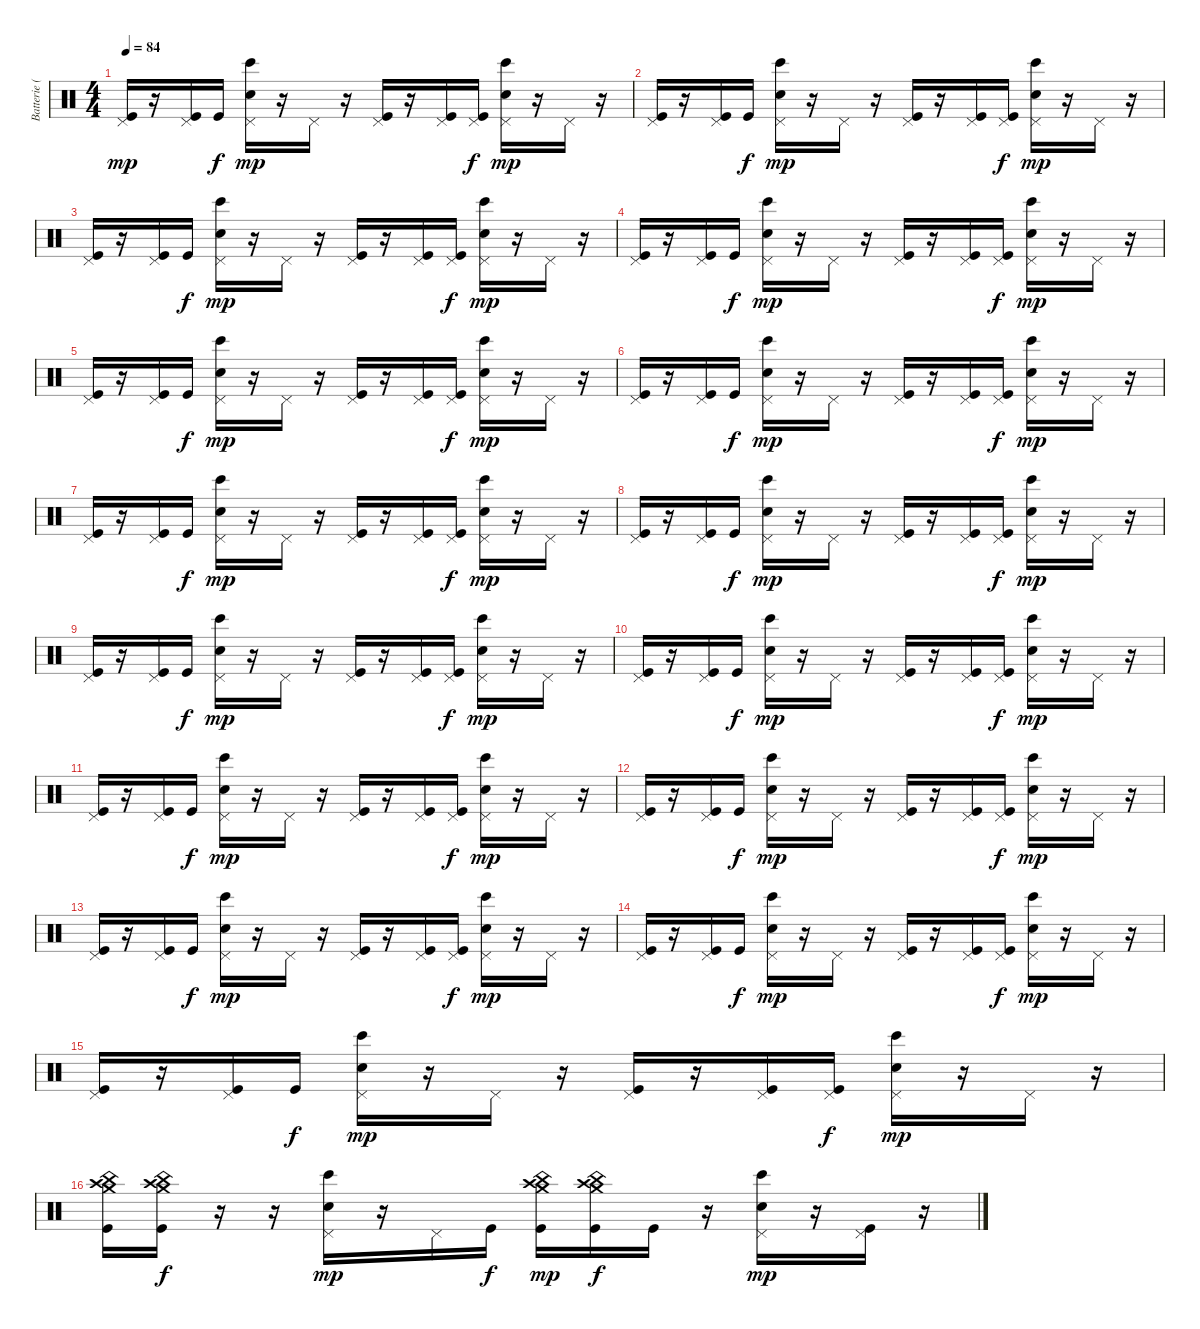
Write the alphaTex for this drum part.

\track ("Batterie (+hand claps)" "Batterie (") {instrument percussion}
\staff {score}
\articulation defaults
\ts (4 4)
\tempo 84
\clef neutral
\ks c
("Pedal Hi-Hat (hit)" "Kick (hit)").16{dy mp} r.16 ("Pedal Hi-Hat (hit)" "Kick (hit)").16 "Kick (hit)".16{dy f} ("Pedal Hi-Hat (hit)" "Hand Clap (hit)" "Bongo High (hit)").16{dy mp} r.16 "Pedal Hi-Hat (hit)".16 r.16 ("Pedal Hi-Hat (hit)" "Kick (hit)").16 r.16 ("Pedal Hi-Hat (hit)" "Kick (hit)").16 ("Pedal Hi-Hat (hit)" "Kick (hit)").16{dy f} ("Pedal Hi-Hat (hit)" "Hand Clap (hit)" "Bongo High (hit)").16{dy mp} r.16 "Pedal Hi-Hat (hit)".16 r.16 |
("Pedal Hi-Hat (hit)" "Kick (hit)").16 r.16 ("Pedal Hi-Hat (hit)" "Kick (hit)").16 "Kick (hit)".16{dy f} ("Pedal Hi-Hat (hit)" "Hand Clap (hit)" "Bongo High (hit)").16{dy mp} r.16 "Pedal Hi-Hat (hit)".16 r.16 ("Pedal Hi-Hat (hit)" "Kick (hit)").16 r.16 ("Pedal Hi-Hat (hit)" "Kick (hit)").16 ("Pedal Hi-Hat (hit)" "Kick (hit)").16{dy f} ("Pedal Hi-Hat (hit)" "Hand Clap (hit)" "Bongo High (hit)").16{dy mp} r.16 "Pedal Hi-Hat (hit)".16 r.16 |
("Pedal Hi-Hat (hit)" "Kick (hit)").16 r.16 ("Pedal Hi-Hat (hit)" "Kick (hit)").16 "Kick (hit)".16{dy f} ("Pedal Hi-Hat (hit)" "Hand Clap (hit)" "Bongo High (hit)").16{dy mp} r.16 "Pedal Hi-Hat (hit)".16 r.16 ("Pedal Hi-Hat (hit)" "Kick (hit)").16 r.16 ("Pedal Hi-Hat (hit)" "Kick (hit)").16 ("Pedal Hi-Hat (hit)" "Kick (hit)").16{dy f} ("Pedal Hi-Hat (hit)" "Hand Clap (hit)" "Bongo High (hit)").16{dy mp} r.16 "Pedal Hi-Hat (hit)".16 r.16 |
("Pedal Hi-Hat (hit)" "Kick (hit)").16 r.16 ("Pedal Hi-Hat (hit)" "Kick (hit)").16 "Kick (hit)".16{dy f} ("Pedal Hi-Hat (hit)" "Hand Clap (hit)" "Bongo High (hit)").16{dy mp} r.16 "Pedal Hi-Hat (hit)".16 r.16 ("Pedal Hi-Hat (hit)" "Kick (hit)").16 r.16 ("Pedal Hi-Hat (hit)" "Kick (hit)").16 ("Pedal Hi-Hat (hit)" "Kick (hit)").16{dy f} ("Pedal Hi-Hat (hit)" "Hand Clap (hit)" "Bongo High (hit)").16{dy mp} r.16 "Pedal Hi-Hat (hit)".16 r.16 |
("Pedal Hi-Hat (hit)" "Kick (hit)").16 r.16 ("Pedal Hi-Hat (hit)" "Kick (hit)").16 "Kick (hit)".16{dy f} ("Pedal Hi-Hat (hit)" "Hand Clap (hit)" "Bongo High (hit)").16{dy mp} r.16 "Pedal Hi-Hat (hit)".16 r.16 ("Pedal Hi-Hat (hit)" "Kick (hit)").16 r.16 ("Pedal Hi-Hat (hit)" "Kick (hit)").16 ("Pedal Hi-Hat (hit)" "Kick (hit)").16{dy f} ("Pedal Hi-Hat (hit)" "Hand Clap (hit)" "Bongo High (hit)").16{dy mp} r.16 "Pedal Hi-Hat (hit)".16 r.16 |
("Pedal Hi-Hat (hit)" "Kick (hit)").16 r.16 ("Pedal Hi-Hat (hit)" "Kick (hit)").16 "Kick (hit)".16{dy f} ("Pedal Hi-Hat (hit)" "Hand Clap (hit)" "Bongo High (hit)").16{dy mp} r.16 "Pedal Hi-Hat (hit)".16 r.16 ("Pedal Hi-Hat (hit)" "Kick (hit)").16 r.16 ("Pedal Hi-Hat (hit)" "Kick (hit)").16 ("Pedal Hi-Hat (hit)" "Kick (hit)").16{dy f} ("Pedal Hi-Hat (hit)" "Hand Clap (hit)" "Bongo High (hit)").16{dy mp} r.16 "Pedal Hi-Hat (hit)".16 r.16 |
("Pedal Hi-Hat (hit)" "Kick (hit)").16 r.16 ("Pedal Hi-Hat (hit)" "Kick (hit)").16 "Kick (hit)".16{dy f} ("Pedal Hi-Hat (hit)" "Hand Clap (hit)" "Bongo High (hit)").16{dy mp} r.16 "Pedal Hi-Hat (hit)".16 r.16 ("Pedal Hi-Hat (hit)" "Kick (hit)").16 r.16 ("Pedal Hi-Hat (hit)" "Kick (hit)").16 ("Pedal Hi-Hat (hit)" "Kick (hit)").16{dy f} ("Pedal Hi-Hat (hit)" "Hand Clap (hit)" "Bongo High (hit)").16{dy mp} r.16 "Pedal Hi-Hat (hit)".16 r.16 |
("Pedal Hi-Hat (hit)" "Kick (hit)").16 r.16 ("Pedal Hi-Hat (hit)" "Kick (hit)").16 "Kick (hit)".16{dy f} ("Pedal Hi-Hat (hit)" "Hand Clap (hit)" "Bongo High (hit)").16{dy mp} r.16 "Pedal Hi-Hat (hit)".16 r.16 ("Pedal Hi-Hat (hit)" "Kick (hit)").16 r.16 ("Pedal Hi-Hat (hit)" "Kick (hit)").16 ("Pedal Hi-Hat (hit)" "Kick (hit)").16{dy f} ("Pedal Hi-Hat (hit)" "Hand Clap (hit)" "Bongo High (hit)").16{dy mp} r.16 "Pedal Hi-Hat (hit)".16 r.16 |
("Pedal Hi-Hat (hit)" "Kick (hit)").16 r.16 ("Pedal Hi-Hat (hit)" "Kick (hit)").16 "Kick (hit)".16{dy f} ("Pedal Hi-Hat (hit)" "Hand Clap (hit)" "Bongo High (hit)").16{dy mp} r.16 "Pedal Hi-Hat (hit)".16 r.16 ("Pedal Hi-Hat (hit)" "Kick (hit)").16 r.16 ("Pedal Hi-Hat (hit)" "Kick (hit)").16 ("Pedal Hi-Hat (hit)" "Kick (hit)").16{dy f} ("Pedal Hi-Hat (hit)" "Hand Clap (hit)" "Bongo High (hit)").16{dy mp} r.16 "Pedal Hi-Hat (hit)".16 r.16 |
("Pedal Hi-Hat (hit)" "Kick (hit)").16 r.16 ("Pedal Hi-Hat (hit)" "Kick (hit)").16 "Kick (hit)".16{dy f} ("Pedal Hi-Hat (hit)" "Hand Clap (hit)" "Bongo High (hit)").16{dy mp} r.16 "Pedal Hi-Hat (hit)".16 r.16 ("Pedal Hi-Hat (hit)" "Kick (hit)").16 r.16 ("Pedal Hi-Hat (hit)" "Kick (hit)").16 ("Pedal Hi-Hat (hit)" "Kick (hit)").16{dy f} ("Pedal Hi-Hat (hit)" "Hand Clap (hit)" "Bongo High (hit)").16{dy mp} r.16 "Pedal Hi-Hat (hit)".16 r.16 |
("Pedal Hi-Hat (hit)" "Kick (hit)").16 r.16 ("Pedal Hi-Hat (hit)" "Kick (hit)").16 "Kick (hit)".16{dy f} ("Pedal Hi-Hat (hit)" "Hand Clap (hit)" "Bongo High (hit)").16{dy mp} r.16 "Pedal Hi-Hat (hit)".16 r.16 ("Pedal Hi-Hat (hit)" "Kick (hit)").16 r.16 ("Pedal Hi-Hat (hit)" "Kick (hit)").16 ("Pedal Hi-Hat (hit)" "Kick (hit)").16{dy f} ("Pedal Hi-Hat (hit)" "Hand Clap (hit)" "Bongo High (hit)").16{dy mp} r.16 "Pedal Hi-Hat (hit)".16 r.16 |
("Pedal Hi-Hat (hit)" "Kick (hit)").16 r.16 ("Pedal Hi-Hat (hit)" "Kick (hit)").16 "Kick (hit)".16{dy f} ("Pedal Hi-Hat (hit)" "Hand Clap (hit)" "Bongo High (hit)").16{dy mp} r.16 "Pedal Hi-Hat (hit)".16 r.16 ("Pedal Hi-Hat (hit)" "Kick (hit)").16 r.16 ("Pedal Hi-Hat (hit)" "Kick (hit)").16 ("Pedal Hi-Hat (hit)" "Kick (hit)").16{dy f} ("Pedal Hi-Hat (hit)" "Hand Clap (hit)" "Bongo High (hit)").16{dy mp} r.16 "Pedal Hi-Hat (hit)".16 r.16 |
("Pedal Hi-Hat (hit)" "Kick (hit)").16 r.16 ("Pedal Hi-Hat (hit)" "Kick (hit)").16 "Kick (hit)".16{dy f} ("Pedal Hi-Hat (hit)" "Hand Clap (hit)" "Bongo High (hit)").16{dy mp} r.16 "Pedal Hi-Hat (hit)".16 r.16 ("Pedal Hi-Hat (hit)" "Kick (hit)").16 r.16 ("Pedal Hi-Hat (hit)" "Kick (hit)").16 ("Pedal Hi-Hat (hit)" "Kick (hit)").16{dy f} ("Pedal Hi-Hat (hit)" "Hand Clap (hit)" "Bongo High (hit)").16{dy mp} r.16 "Pedal Hi-Hat (hit)".16 r.16 |
("Pedal Hi-Hat (hit)" "Kick (hit)").16 r.16 ("Pedal Hi-Hat (hit)" "Kick (hit)").16 "Kick (hit)".16{dy f} ("Pedal Hi-Hat (hit)" "Hand Clap (hit)" "Bongo High (hit)").16{dy mp} r.16 "Pedal Hi-Hat (hit)".16 r.16 ("Pedal Hi-Hat (hit)" "Kick (hit)").16 r.16 ("Pedal Hi-Hat (hit)" "Kick (hit)").16 ("Pedal Hi-Hat (hit)" "Kick (hit)").16{dy f} ("Pedal Hi-Hat (hit)" "Hand Clap (hit)" "Bongo High (hit)").16{dy mp} r.16 "Pedal Hi-Hat (hit)".16 r.16 |
("Pedal Hi-Hat (hit)" "Kick (hit)").16 r.16 ("Pedal Hi-Hat (hit)" "Kick (hit)").16 "Kick (hit)".16{dy f} ("Pedal Hi-Hat (hit)" "Hand Clap (hit)" "Bongo High (hit)").16{dy mp} r.16 "Pedal Hi-Hat (hit)".16 r.16 ("Pedal Hi-Hat (hit)" "Kick (hit)").16 r.16 ("Pedal Hi-Hat (hit)" "Kick (hit)").16 ("Pedal Hi-Hat (hit)" "Kick (hit)").16{dy f} ("Pedal Hi-Hat (hit)" "Hand Clap (hit)" "Bongo High (hit)").16{dy mp} r.16 "Pedal Hi-Hat (hit)".16 r.16 |
("Crash high (hit)" "China (hit)" "Crash medium (hit)" "Kick (hit)").16 ("Crash high (hit)" "China (hit)" "Crash medium (hit)" "Kick (hit)").16{dy f} r.16 r.16 ("Pedal Hi-Hat (hit)" "Hand Clap (hit)" "Bongo High (hit)").16{dy mp} r.16 "Pedal Hi-Hat (hit)".16 "Kick (hit)".16{dy f} ("Crash high (hit)" "China (hit)" "Crash medium (hit)" "Kick (hit)").16{dy mp} ("Crash high (hit)" "China (hit)" "Crash medium (hit)" "Kick (hit)").16{dy f} "Kick (hit)".16 r.16 ("Pedal Hi-Hat (hit)" "Hand Clap (hit)" "Bongo High (hit)").16{dy mp} r.16 ("Pedal Hi-Hat (hit)" "Kick (hit)").16 r.16
